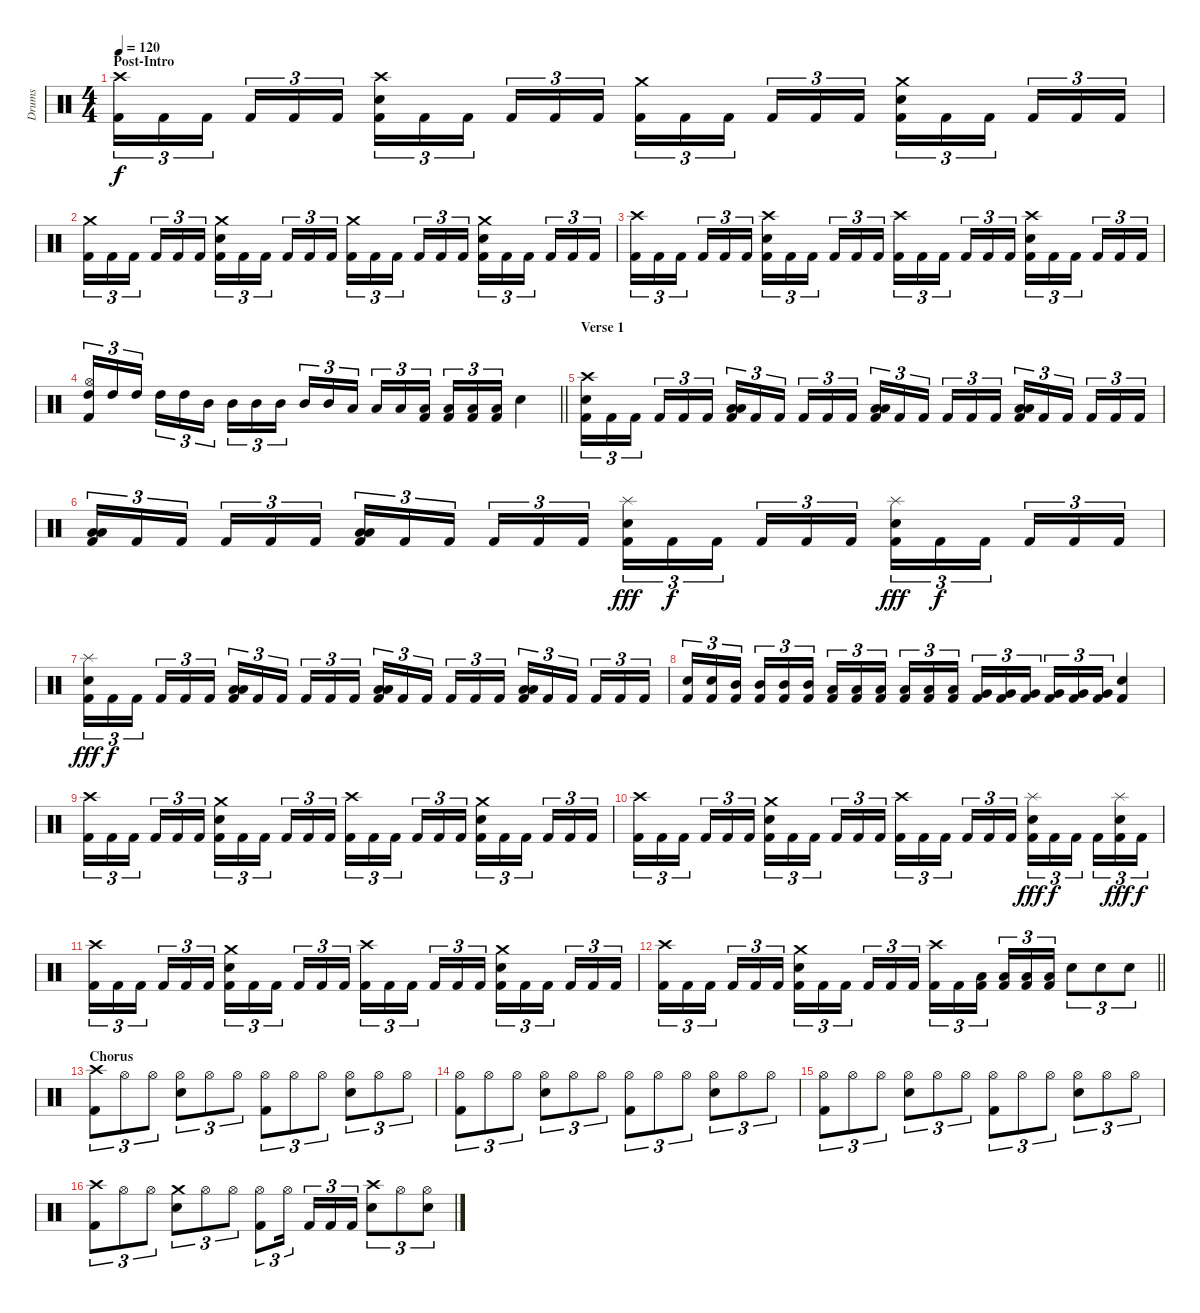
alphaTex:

\track ("Drums" "Drums") {instrument percussion}
\staff {score}
\articulation defaults
\ts (4 4)
\section ("" "Post-Intro")
\tempo 120
\clef neutral
\ks c
("Crash high (hit)" "Kick (hit) 2").16{tu (3 2) dy f} "Kick (hit) 2".16{tu (3 2)} "Kick (hit) 2".16{tu (3 2) beam splitsecondary} "Kick (hit) 2".16{tu (3 2)} "Kick (hit) 2".16{tu (3 2)} "Kick (hit) 2".16{tu (3 2)} ("Crash high (hit)" "Electric Snare (hit)" "Kick (hit) 2").16{tu (3 2)} "Kick (hit) 2".16{tu (3 2)} "Kick (hit) 2".16{tu (3 2) beam splitsecondary} "Kick (hit) 2".16{tu (3 2)} "Kick (hit) 2".16{tu (3 2)} "Kick (hit) 2".16{tu (3 2)} ("Crash medium (hit)" "Kick (hit) 2").16{tu (3 2)} "Kick (hit) 2".16{tu (3 2)} "Kick (hit) 2".16{tu (3 2) beam splitsecondary} "Kick (hit) 2".16{tu (3 2)} "Kick (hit) 2".16{tu (3 2)} "Kick (hit) 2".16{tu (3 2)} ("Crash medium (hit)" "Electric Snare (hit)" "Kick (hit) 2").16{tu (3 2)} "Kick (hit) 2".16{tu (3 2)} "Kick (hit) 2".16{tu (3 2) beam splitsecondary} "Kick (hit) 2".16{tu (3 2)} "Kick (hit) 2".16{tu (3 2)} "Kick (hit) 2".16{tu (3 2)} |
("Crash medium (hit)" "Kick (hit) 2").16{tu (3 2)} "Kick (hit) 2".16{tu (3 2)} "Kick (hit) 2".16{tu (3 2) beam splitsecondary} "Kick (hit) 2".16{tu (3 2)} "Kick (hit) 2".16{tu (3 2)} "Kick (hit) 2".16{tu (3 2)} ("Crash medium (hit)" "Electric Snare (hit)" "Kick (hit) 2").16{tu (3 2)} "Kick (hit) 2".16{tu (3 2)} "Kick (hit) 2".16{tu (3 2) beam splitsecondary} "Kick (hit) 2".16{tu (3 2)} "Kick (hit) 2".16{tu (3 2)} "Kick (hit) 2".16{tu (3 2)} ("Crash medium (hit)" "Kick (hit) 2").16{tu (3 2)} "Kick (hit) 2".16{tu (3 2)} "Kick (hit) 2".16{tu (3 2) beam splitsecondary} "Kick (hit) 2".16{tu (3 2)} "Kick (hit) 2".16{tu (3 2)} "Kick (hit) 2".16{tu (3 2)} ("Crash medium (hit)" "Electric Snare (hit)" "Kick (hit) 2").16{tu (3 2)} "Kick (hit) 2".16{tu (3 2)} "Kick (hit) 2".16{tu (3 2) beam splitsecondary} "Kick (hit) 2".16{tu (3 2)} "Kick (hit) 2".16{tu (3 2)} "Kick (hit) 2".16{tu (3 2)} |
("Crash high (hit)" "Kick (hit) 2").16{tu (3 2)} "Kick (hit) 2".16{tu (3 2)} "Kick (hit) 2".16{tu (3 2) beam splitsecondary} "Kick (hit) 2".16{tu (3 2)} "Kick (hit) 2".16{tu (3 2)} "Kick (hit) 2".16{tu (3 2)} ("Crash high (hit)" "Electric Snare (hit)" "Kick (hit) 2").16{tu (3 2)} "Kick (hit) 2".16{tu (3 2)} "Kick (hit) 2".16{tu (3 2) beam splitsecondary} "Kick (hit) 2".16{tu (3 2)} "Kick (hit) 2".16{tu (3 2)} "Kick (hit) 2".16{tu (3 2)} ("Crash high (hit)" "Kick (hit) 2").16{tu (3 2)} "Kick (hit) 2".16{tu (3 2)} "Kick (hit) 2".16{tu (3 2) beam splitsecondary} "Kick (hit) 2".16{tu (3 2)} "Kick (hit) 2".16{tu (3 2)} "Kick (hit) 2".16{tu (3 2)} ("Crash high (hit)" "Electric Snare (hit)" "Kick (hit) 2").16{tu (3 2)} "Kick (hit) 2".16{tu (3 2)} "Kick (hit) 2".16{tu (3 2) beam splitsecondary} "Kick (hit) 2".16{tu (3 2)} "Kick (hit) 2".16{tu (3 2)} "Kick (hit) 2".16{tu (3 2)} |
\barLineRight lightlight
("Hi-Hat (open)" "High Tom (hit)" "Kick (hit) 2").16{tu (3 2)} "High Tom (hit)".16{tu (3 2)} "High Tom (hit)".16{tu (3 2) beam splitsecondary} "High Tom (hit)".16{tu (3 2)} "High Tom (hit)".16{tu (3 2)} "Mid Tom (hit)".16{tu (3 2)} "Mid Tom (hit)".16{tu (3 2)} "Mid Tom (hit)".16{tu (3 2)} "Mid Tom (hit)".16{tu (3 2) beam splitsecondary} "Mid Tom (hit)".16{tu (3 2)} "Mid Tom (hit)".16{tu (3 2)} "Low Tom (hit)".16{tu (3 2)} "Low Tom (hit)".16{tu (3 2)} "Low Tom (hit)".16{tu (3 2)} ("Low Tom (hit)" "Kick (hit) 2").16{tu (3 2) beam splitsecondary} ("Low Tom (hit)" "Kick (hit) 2").16{tu (3 2)} ("Low Tom (hit)" "Kick (hit) 2").16{tu (3 2)} ("Low Tom (hit)" "Kick (hit) 2").16{tu (3 2)} "Electric Snare (hit)".4 |
\section ("" "Verse 1")
("Crash high (hit)" "Electric Snare (hit)" "Kick (hit) 2").16{tu (3 2)} "Kick (hit) 2".16{tu (3 2)} "Kick (hit) 2".16{tu (3 2) beam splitsecondary} "Kick (hit) 2".16{tu (3 2)} "Kick (hit) 2".16{tu (3 2)} "Kick (hit) 2".16{tu (3 2)} ("Low Tom (hit)" "Low Tom (hit)" "Kick (hit) 2").16{tu (3 2) bd 30} "Kick (hit) 2".16{tu (3 2)} "Kick (hit) 2".16{tu (3 2) beam splitsecondary} "Kick (hit) 2".16{tu (3 2)} "Kick (hit) 2".16{tu (3 2)} "Kick (hit) 2".16{tu (3 2)} ("Low Tom (hit)" "Low Tom (hit)" "Kick (hit) 2").16{tu (3 2) bd 30} "Kick (hit) 2".16{tu (3 2)} "Kick (hit) 2".16{tu (3 2) beam splitsecondary} "Kick (hit) 2".16{tu (3 2)} "Kick (hit) 2".16{tu (3 2)} "Kick (hit) 2".16{tu (3 2)} ("Low Tom (hit)" "Low Tom (hit)" "Kick (hit) 2").16{tu (3 2) bd 30} "Kick (hit) 2".16{tu (3 2)} "Kick (hit) 2".16{tu (3 2) beam splitsecondary} "Kick (hit) 2".16{tu (3 2)} "Kick (hit) 2".16{tu (3 2)} "Kick (hit) 2".16{tu (3 2)} |
("Low Tom (hit)" "Low Tom (hit)" "Kick (hit) 2").16{tu (3 2) bd 30} "Kick (hit) 2".16{tu (3 2)} "Kick (hit) 2".16{tu (3 2) beam splitsecondary} "Kick (hit) 2".16{tu (3 2)} "Kick (hit) 2".16{tu (3 2)} "Kick (hit) 2".16{tu (3 2)} ("Low Tom (hit)" "Low Tom (hit)" "Kick (hit) 2").16{tu (3 2) bd 30} "Kick (hit) 2".16{tu (3 2)} "Kick (hit) 2".16{tu (3 2) beam splitsecondary} "Kick (hit) 2".16{tu (3 2)} "Kick (hit) 2".16{tu (3 2)} "Kick (hit) 2".16{tu (3 2)} ("Splash (hit)" "Electric Snare (hit)" "Kick (hit) 2").16{tu (3 2) dy fff} "Kick (hit) 2".16{tu (3 2) dy f} "Kick (hit) 2".16{tu (3 2) beam splitsecondary} "Kick (hit) 2".16{tu (3 2)} "Kick (hit) 2".16{tu (3 2)} "Kick (hit) 2".16{tu (3 2)} ("Splash (hit)" "Electric Snare (hit)" "Kick (hit) 2").16{tu (3 2) dy fff} "Kick (hit) 2".16{tu (3 2) dy f} "Kick (hit) 2".16{tu (3 2) beam splitsecondary} "Kick (hit) 2".16{tu (3 2)} "Kick (hit) 2".16{tu (3 2)} "Kick (hit) 2".16{tu (3 2)} |
("Splash (hit)" "Electric Snare (hit)" "Kick (hit) 2").16{tu (3 2) dy fff} "Kick (hit) 2".16{tu (3 2) dy f} "Kick (hit) 2".16{tu (3 2) beam splitsecondary} "Kick (hit) 2".16{tu (3 2)} "Kick (hit) 2".16{tu (3 2)} "Kick (hit) 2".16{tu (3 2)} ("Low Tom (hit)" "Low Tom (hit)" "Kick (hit) 2").16{tu (3 2) bd 30} "Kick (hit) 2".16{tu (3 2)} "Kick (hit) 2".16{tu (3 2) beam splitsecondary} "Kick (hit) 2".16{tu (3 2)} "Kick (hit) 2".16{tu (3 2)} "Kick (hit) 2".16{tu (3 2)} ("Low Tom (hit)" "Low Tom (hit)" "Kick (hit) 2").16{tu (3 2) bd 30} "Kick (hit) 2".16{tu (3 2)} "Kick (hit) 2".16{tu (3 2) beam splitsecondary} "Kick (hit) 2".16{tu (3 2)} "Kick (hit) 2".16{tu (3 2)} "Kick (hit) 2".16{tu (3 2)} ("Low Tom (hit)" "Low Tom (hit)" "Kick (hit) 2").16{tu (3 2) bd 30} "Kick (hit) 2".16{tu (3 2)} "Kick (hit) 2".16{tu (3 2) beam splitsecondary} "Kick (hit) 2".16{tu (3 2)} "Kick (hit) 2".16{tu (3 2)} "Kick (hit) 2".16{tu (3 2)} |
("Electric Snare (hit)" "Kick (hit) 2").16{tu (3 2)} ("Electric Snare (hit)" "Kick (hit) 2").16{tu (3 2)} ("Mid Tom (hit)" "Kick (hit) 2").16{tu (3 2) beam splitsecondary} ("Mid Tom (hit)" "Kick (hit) 2").16{tu (3 2)} ("Mid Tom (hit)" "Kick (hit) 2").16{tu (3 2)} ("Mid Tom (hit)" "Kick (hit) 2").16{tu (3 2)} ("Low Tom (hit)" "Kick (hit) 2").16{tu (3 2)} ("Low Tom (hit)" "Kick (hit) 2").16{tu (3 2)} ("Low Tom (hit)" "Kick (hit) 2").16{tu (3 2) beam splitsecondary} ("Low Tom (hit)" "Kick (hit) 2").16{tu (3 2)} ("Low Tom (hit)" "Kick (hit) 2").16{tu (3 2)} ("Low Tom (hit)" "Kick (hit) 2").16{tu (3 2)} ("Very Low Tom (hit)" "Kick (hit) 2").16{tu (3 2)} ("Very Low Tom (hit)" "Kick (hit) 2").16{tu (3 2)} ("Very Low Tom (hit)" "Kick (hit) 2").16{tu (3 2) beam splitsecondary} ("Very Low Tom (hit)" "Kick (hit) 2").16{tu (3 2)} ("Very Low Tom (hit)" "Kick (hit) 2").16{tu (3 2)} ("Very Low Tom (hit)" "Kick (hit) 2").16{tu (3 2)} ("Electric Snare (hit)" "Kick (hit) 2").4 |
("Crash high (hit)" "Kick (hit) 2").16{tu (3 2)} "Kick (hit) 2".16{tu (3 2)} "Kick (hit) 2".16{tu (3 2) beam splitsecondary} "Kick (hit) 2".16{tu (3 2)} "Kick (hit) 2".16{tu (3 2)} "Kick (hit) 2".16{tu (3 2)} ("Crash medium (hit)" "Electric Snare (hit)" "Kick (hit) 2").16{tu (3 2)} "Kick (hit) 2".16{tu (3 2)} "Kick (hit) 2".16{tu (3 2) beam splitsecondary} "Kick (hit) 2".16{tu (3 2)} "Kick (hit) 2".16{tu (3 2)} "Kick (hit) 2".16{tu (3 2)} ("Crash high (hit)" "Kick (hit) 2").16{tu (3 2)} "Kick (hit) 2".16{tu (3 2)} "Kick (hit) 2".16{tu (3 2) beam splitsecondary} "Kick (hit) 2".16{tu (3 2)} "Kick (hit) 2".16{tu (3 2)} "Kick (hit) 2".16{tu (3 2)} ("Crash medium (hit)" "Electric Snare (hit)" "Kick (hit) 2").16{tu (3 2)} "Kick (hit) 2".16{tu (3 2)} "Kick (hit) 2".16{tu (3 2) beam splitsecondary} "Kick (hit) 2".16{tu (3 2)} "Kick (hit) 2".16{tu (3 2)} "Kick (hit) 2".16{tu (3 2)} |
("Crash high (hit)" "Kick (hit) 2").16{tu (3 2)} "Kick (hit) 2".16{tu (3 2)} "Kick (hit) 2".16{tu (3 2) beam splitsecondary} "Kick (hit) 2".16{tu (3 2)} "Kick (hit) 2".16{tu (3 2)} "Kick (hit) 2".16{tu (3 2)} ("Crash medium (hit)" "Electric Snare (hit)" "Kick (hit) 2").16{tu (3 2)} "Kick (hit) 2".16{tu (3 2)} "Kick (hit) 2".16{tu (3 2) beam splitsecondary} "Kick (hit) 2".16{tu (3 2)} "Kick (hit) 2".16{tu (3 2)} "Kick (hit) 2".16{tu (3 2)} ("Crash high (hit)" "Kick (hit) 2").16{tu (3 2)} "Kick (hit) 2".16{tu (3 2)} "Kick (hit) 2".16{tu (3 2) beam splitsecondary} "Kick (hit) 2".16{tu (3 2)} "Kick (hit) 2".16{tu (3 2)} "Kick (hit) 2".16{tu (3 2)} ("Splash (hit)" "Electric Snare (hit)" "Kick (hit) 2").16{tu (3 2) dy fff} "Kick (hit) 2".16{tu (3 2) dy f} "Kick (hit) 2".16{tu (3 2) beam splitsecondary} "Kick (hit) 2".16{tu (3 2)} ("Splash (hit)" "Electric Snare (hit)" "Kick (hit) 2").16{tu (3 2) dy fff} "Kick (hit) 2".16{tu (3 2) dy f} |
("Crash high (hit)" "Kick (hit) 2").16{tu (3 2)} "Kick (hit) 2".16{tu (3 2)} "Kick (hit) 2".16{tu (3 2) beam splitsecondary} "Kick (hit) 2".16{tu (3 2)} "Kick (hit) 2".16{tu (3 2)} "Kick (hit) 2".16{tu (3 2)} ("Crash medium (hit)" "Electric Snare (hit)" "Kick (hit) 2").16{tu (3 2)} "Kick (hit) 2".16{tu (3 2)} "Kick (hit) 2".16{tu (3 2) beam splitsecondary} "Kick (hit) 2".16{tu (3 2)} "Kick (hit) 2".16{tu (3 2)} "Kick (hit) 2".16{tu (3 2)} ("Crash high (hit)" "Kick (hit) 2").16{tu (3 2)} "Kick (hit) 2".16{tu (3 2)} "Kick (hit) 2".16{tu (3 2) beam splitsecondary} "Kick (hit) 2".16{tu (3 2)} "Kick (hit) 2".16{tu (3 2)} "Kick (hit) 2".16{tu (3 2)} ("Crash medium (hit)" "Electric Snare (hit)" "Kick (hit) 2").16{tu (3 2)} "Kick (hit) 2".16{tu (3 2)} "Kick (hit) 2".16{tu (3 2) beam splitsecondary} "Kick (hit) 2".16{tu (3 2)} "Kick (hit) 2".16{tu (3 2)} "Kick (hit) 2".16{tu (3 2)} |
\barLineRight lightlight
("Crash high (hit)" "Kick (hit) 2").16{tu (3 2)} "Kick (hit) 2".16{tu (3 2)} "Kick (hit) 2".16{tu (3 2) beam splitsecondary} "Kick (hit) 2".16{tu (3 2)} "Kick (hit) 2".16{tu (3 2)} "Kick (hit) 2".16{tu (3 2)} ("Crash medium (hit)" "Electric Snare (hit)" "Kick (hit) 2").16{tu (3 2)} "Kick (hit) 2".16{tu (3 2)} "Kick (hit) 2".16{tu (3 2) beam splitsecondary} "Kick (hit) 2".16{tu (3 2)} "Kick (hit) 2".16{tu (3 2)} "Kick (hit) 2".16{tu (3 2)} ("Crash high (hit)" "Kick (hit) 2").16{tu (3 2)} "Kick (hit) 2".16{tu (3 2)} ("Low Tom (hit)" "Kick (hit) 2").16{tu (3 2) beam splitsecondary} ("Low Tom (hit)" "Kick (hit) 2").16{tu (3 2)} ("Low Tom (hit)" "Kick (hit) 2").16{tu (3 2)} ("Low Tom (hit)" "Kick (hit) 2").16{tu (3 2)} "Electric Snare (hit)".8{tu (3 2)} "Electric Snare (hit)".8{tu (3 2)} "Electric Snare (hit)".8{tu (3 2)} |
\section ("" "Chorus")
("Crash high (hit)" "Kick (hit) 2").8{tu (3 2)} "Hi-Hat (open)".8{tu (3 2)} "Hi-Hat (open)".8{tu (3 2)} ("Hi-Hat (open)" "Electric Snare (hit)").8{tu (3 2)} "Hi-Hat (open)".8{tu (3 2)} "Hi-Hat (open)".8{tu (3 2)} ("Hi-Hat (open)" "Kick (hit) 2").8{tu (3 2)} "Hi-Hat (open)".8{tu (3 2)} "Hi-Hat (open)".8{tu (3 2)} ("Hi-Hat (open)" "Electric Snare (hit)").8{tu (3 2)} "Hi-Hat (open)".8{tu (3 2)} "Hi-Hat (open)".8{tu (3 2)} |
("Hi-Hat (open)" "Kick (hit) 2").8{tu (3 2)} "Hi-Hat (open)".8{tu (3 2)} "Hi-Hat (open)".8{tu (3 2)} ("Hi-Hat (open)" "Electric Snare (hit)").8{tu (3 2)} "Hi-Hat (open)".8{tu (3 2)} "Hi-Hat (open)".8{tu (3 2)} ("Hi-Hat (open)" "Kick (hit) 2").8{tu (3 2)} "Hi-Hat (open)".8{tu (3 2)} "Hi-Hat (open)".8{tu (3 2)} ("Hi-Hat (open)" "Electric Snare (hit)").8{tu (3 2)} "Hi-Hat (open)".8{tu (3 2)} "Hi-Hat (open)".8{tu (3 2)} |
("Hi-Hat (open)" "Kick (hit) 2").8{tu (3 2)} "Hi-Hat (open)".8{tu (3 2)} "Hi-Hat (open)".8{tu (3 2)} ("Hi-Hat (open)" "Electric Snare (hit)").8{tu (3 2)} "Hi-Hat (open)".8{tu (3 2)} "Hi-Hat (open)".8{tu (3 2)} ("Hi-Hat (open)" "Kick (hit) 2").8{tu (3 2)} "Hi-Hat (open)".8{tu (3 2)} "Hi-Hat (open)".8{tu (3 2)} ("Hi-Hat (open)" "Electric Snare (hit)").8{tu (3 2)} "Hi-Hat (open)".8{tu (3 2)} "Hi-Hat (open)".8{tu (3 2)} |
("Crash high (hit)" "Kick (hit) 2").8{tu (3 2)} "Hi-Hat (open)".8{tu (3 2)} "Hi-Hat (open)".8{tu (3 2)} ("Crash medium (hit)" "Electric Snare (hit)").8{tu (3 2)} "Hi-Hat (open)".8{tu (3 2)} "Hi-Hat (open)".8{tu (3 2)} ("Hi-Hat (open)" "Kick (hit) 2").8{tu (3 2)} "Hi-Hat (open)".16{tu (3 2) beam splitsecondary} "Kick (hit) 2".16{tu (3 2)} "Kick (hit) 2".16{tu (3 2)} "Kick (hit) 2".16{tu (3 2)} ("Crash high (hit)" "Electric Snare (hit)").8{tu (3 2)} "Hi-Hat (open)".8{tu (3 2)} ("Hi-Hat (open)" "Electric Snare (hit)").8{tu (3 2)}
